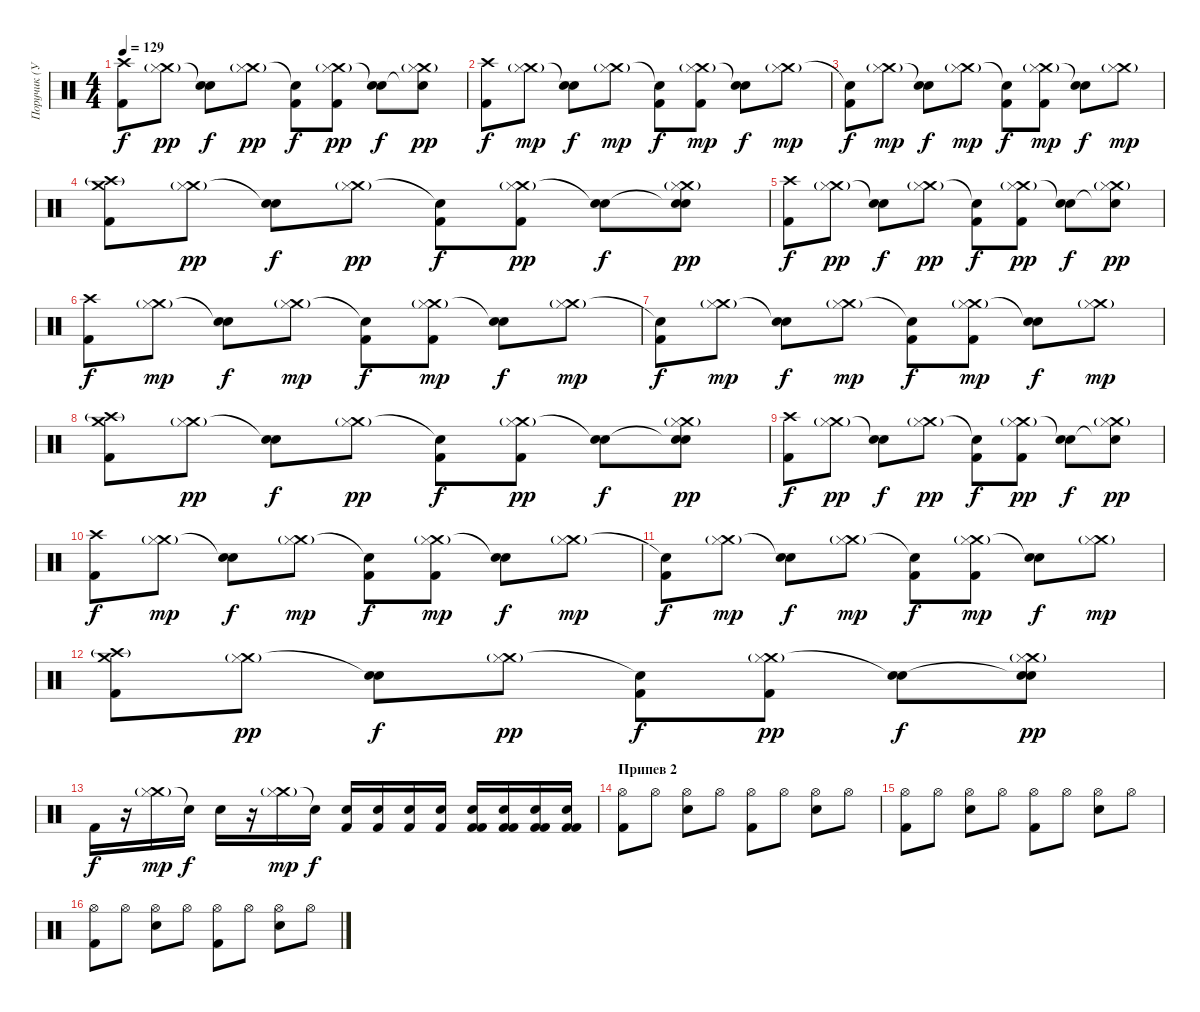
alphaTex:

\track ("Поручик (Ударные)" "Поручик (У") {instrument percussion}
\staff {score}
\articulation defaults
\ts (4 4)
\tempo 129
\clef neutral
\ks c
("Kick (hit) 2" "Crash high (hit)").8{dy f} ("Crash medium (hit)"{g} "Hi-Hat (closed)").8{dy pp} ("Snare (hit) 2" "Snare (hit)"{t}).8{dy f} ("Crash medium (hit)"{g} "Hi-Hat (closed)").8{dy pp} ("Kick (hit) 2" "Snare (hit)"{t}).8{dy f} ("Kick (hit) 2" "Crash medium (hit)"{g} "Hi-Hat (closed)").8{dy pp} ("Snare (hit) 2" "Snare (hit)"{t}).8{dy f} ("Crash medium (hit)"{g} "Snare (hit)"{t} "Hi-Hat (closed)").8{dy pp} |
("Kick (hit) 2" "Crash high (hit)").8{dy f} ("Crash medium (hit)"{g} "Hi-Hat (closed)").8{dy mp} ("Snare (hit) 2" "Snare (hit)"{t}).8{dy f} ("Crash medium (hit)"{g} "Hi-Hat (closed)").8{dy mp} ("Kick (hit) 2" "Snare (hit)"{t}).8{dy f} ("Kick (hit) 2" "Crash medium (hit)"{g} "Hi-Hat (closed)").8{dy mp} ("Snare (hit) 2" "Snare (hit)"{t}).8{dy f} ("Crash medium (hit)"{g} "Hi-Hat (closed)").8{dy mp} |
("Kick (hit) 2" "Snare (hit)"{t}).8{dy f} ("Crash medium (hit)"{g} "Hi-Hat (closed)").8{dy mp} ("Snare (hit) 2" "Snare (hit)"{t}).8{dy f} ("Crash medium (hit)"{g} "Hi-Hat (closed)").8{dy mp} ("Kick (hit) 2" "Snare (hit)"{t}).8{dy f} ("Kick (hit) 2" "Crash medium (hit)"{g} "Hi-Hat (closed)").8{dy mp} ("Snare (hit) 2" "Snare (hit)"{t}).8{dy f} ("Crash medium (hit)"{g} "Hi-Hat (closed)").8{dy mp} |
("Kick (hit) 2" "Crash medium (hit)" "Crash high (hit)"{g}).8 ("Crash medium (hit)"{g} "Hi-Hat (closed)").8{dy pp} ("Snare (hit) 2" "Snare (hit)"{t}).8{dy f} ("Crash medium (hit)"{g} "Hi-Hat (closed)").8{dy pp} ("Kick (hit) 2" "Snare (hit)"{t}).8{dy f} ("Kick (hit) 2" "Crash medium (hit)"{g} "Hi-Hat (closed)").8{dy pp} ("Snare (hit) 2" "Snare (hit)"{t}).8{dy f} ("Crash medium (hit)"{g} "Snare (hit)"{t} "Hi-Hat (closed)" "Snare (hit)").8{dy pp} |
("Kick (hit) 2" "Crash high (hit)").8{dy f} ("Crash medium (hit)"{g} "Hi-Hat (closed)").8{dy pp} ("Snare (hit) 2" "Snare (hit)"{t}).8{dy f} ("Crash medium (hit)"{g} "Hi-Hat (closed)").8{dy pp} ("Kick (hit) 2" "Snare (hit)"{t}).8{dy f} ("Kick (hit) 2" "Crash medium (hit)"{g} "Hi-Hat (closed)").8{dy pp} ("Snare (hit) 2" "Snare (hit)"{t}).8{dy f} ("Crash medium (hit)"{g} "Snare (hit)"{t} "Hi-Hat (closed)").8{dy pp} |
("Kick (hit) 2" "Crash high (hit)").8{dy f} ("Crash medium (hit)"{g} "Hi-Hat (closed)").8{dy mp} ("Snare (hit) 2" "Snare (hit)"{t}).8{dy f} ("Crash medium (hit)"{g} "Hi-Hat (closed)").8{dy mp} ("Kick (hit) 2" "Snare (hit)"{t}).8{dy f} ("Kick (hit) 2" "Crash medium (hit)"{g} "Hi-Hat (closed)").8{dy mp} ("Snare (hit) 2" "Snare (hit)"{t}).8{dy f} ("Crash medium (hit)"{g} "Hi-Hat (closed)").8{dy mp} |
("Kick (hit) 2" "Snare (hit)"{t}).8{dy f} ("Crash medium (hit)"{g} "Hi-Hat (closed)").8{dy mp} ("Snare (hit) 2" "Snare (hit)"{t}).8{dy f} ("Crash medium (hit)"{g} "Hi-Hat (closed)").8{dy mp} ("Kick (hit) 2" "Snare (hit)"{t}).8{dy f} ("Kick (hit) 2" "Crash medium (hit)"{g} "Hi-Hat (closed)").8{dy mp} ("Snare (hit) 2" "Snare (hit)"{t}).8{dy f} ("Crash medium (hit)"{g} "Hi-Hat (closed)").8{dy mp} |
("Kick (hit) 2" "Crash medium (hit)" "Crash high (hit)"{g}).8 ("Crash medium (hit)"{g} "Hi-Hat (closed)").8{dy pp} ("Snare (hit) 2" "Snare (hit)"{t}).8{dy f} ("Crash medium (hit)"{g} "Hi-Hat (closed)").8{dy pp} ("Kick (hit) 2" "Snare (hit)"{t}).8{dy f} ("Kick (hit) 2" "Crash medium (hit)"{g} "Hi-Hat (closed)").8{dy pp} ("Snare (hit) 2" "Snare (hit)"{t}).8{dy f} ("Crash medium (hit)"{g} "Snare (hit)"{t} "Hi-Hat (closed)" "Snare (hit)").8{dy pp} |
("Kick (hit) 2" "Crash high (hit)").8{dy f} ("Crash medium (hit)"{g} "Hi-Hat (closed)").8{dy pp} ("Snare (hit) 2" "Snare (hit)"{t}).8{dy f} ("Crash medium (hit)"{g} "Hi-Hat (closed)").8{dy pp} ("Kick (hit) 2" "Snare (hit)"{t}).8{dy f} ("Kick (hit) 2" "Crash medium (hit)"{g} "Hi-Hat (closed)").8{dy pp} ("Snare (hit) 2" "Snare (hit)"{t}).8{dy f} ("Crash medium (hit)"{g} "Snare (hit)"{t} "Hi-Hat (closed)").8{dy pp} |
("Kick (hit) 2" "Crash high (hit)").8{dy f} ("Crash medium (hit)"{g} "Hi-Hat (closed)").8{dy mp} ("Snare (hit) 2" "Snare (hit)"{t}).8{dy f} ("Crash medium (hit)"{g} "Hi-Hat (closed)").8{dy mp} ("Kick (hit) 2" "Snare (hit)"{t}).8{dy f} ("Kick (hit) 2" "Crash medium (hit)"{g} "Hi-Hat (closed)").8{dy mp} ("Snare (hit) 2" "Snare (hit)"{t}).8{dy f} ("Crash medium (hit)"{g} "Hi-Hat (closed)").8{dy mp} |
("Kick (hit) 2" "Snare (hit)"{t}).8{dy f} ("Crash medium (hit)"{g} "Hi-Hat (closed)").8{dy mp} ("Snare (hit) 2" "Snare (hit)"{t}).8{dy f} ("Crash medium (hit)"{g} "Hi-Hat (closed)").8{dy mp} ("Kick (hit) 2" "Snare (hit)"{t}).8{dy f} ("Kick (hit) 2" "Crash medium (hit)"{g} "Hi-Hat (closed)").8{dy mp} ("Snare (hit) 2" "Snare (hit)"{t}).8{dy f} ("Crash medium (hit)"{g} "Hi-Hat (closed)").8{dy mp} |
("Kick (hit) 2" "Crash medium (hit)" "Crash high (hit)"{g}).8 ("Crash medium (hit)"{g} "Hi-Hat (closed)").8{dy pp} ("Snare (hit) 2" "Snare (hit)"{t}).8{dy f} ("Crash medium (hit)"{g} "Hi-Hat (closed)").8{dy pp} ("Kick (hit) 2" "Snare (hit)"{t}).8{dy f} ("Kick (hit) 2" "Crash medium (hit)"{g} "Hi-Hat (closed)").8{dy pp} ("Snare (hit) 2" "Snare (hit)"{t}).8{dy f} ("Crash medium (hit)"{g} "Snare (hit)"{t} "Hi-Hat (closed)" "Snare (hit)").8{dy pp} |
"Kick (hit) 2".16{dy f} r.16 ("Crash medium (hit)"{g} "Hi-Hat (closed)").16{dy mp} "Snare (hit)"{t}.16{dy f} "Snare (hit) 2".16 r.16 ("Crash medium (hit)"{g} "Hi-Hat (closed)").16{dy mp} "Snare (hit)"{t}.16{dy f} ("Electric Snare (hit)" "Kick (hit) 2").16 ("Electric Snare (hit)" "Kick (hit) 2").16 ("Electric Snare (hit)" "Kick (hit) 2").16 ("Electric Snare (hit)" "Kick (hit) 2").16 ("Electric Snare (hit)" "Kick (hit) 2" "Kick (hit) 2").16 ("Electric Snare (hit)" "Kick (hit) 2" "Kick (hit) 2").16 ("Electric Snare (hit)" "Kick (hit) 2" "Kick (hit) 2").16 ("Electric Snare (hit)" "Kick (hit) 2" "Kick (hit) 2").16 |
\section ("" "Припев 2")
("Hi-Hat (open)" "Kick (hit) 2").8 "Hi-Hat (open)".8 ("Hi-Hat (open)" "Snare (hit) 2").8 "Hi-Hat (open)".8 ("Hi-Hat (open)" "Kick (hit) 2").8 "Hi-Hat (open)".8 ("Hi-Hat (open)" "Snare (hit) 2").8 "Hi-Hat (open)".8 |
("Hi-Hat (open)" "Kick (hit) 2").8 "Hi-Hat (open)".8 ("Hi-Hat (open)" "Snare (hit) 2").8 "Hi-Hat (open)".8 ("Hi-Hat (open)" "Kick (hit) 2").8 "Hi-Hat (open)".8 ("Hi-Hat (open)" "Snare (hit) 2").8 "Hi-Hat (open)".8 |
("Hi-Hat (open)" "Kick (hit) 2").8 "Hi-Hat (open)".8 ("Hi-Hat (open)" "Snare (hit) 2").8 "Hi-Hat (open)".8 ("Hi-Hat (open)" "Kick (hit) 2").8 "Hi-Hat (open)".8 ("Hi-Hat (open)" "Snare (hit) 2").8 "Hi-Hat (open)".8
